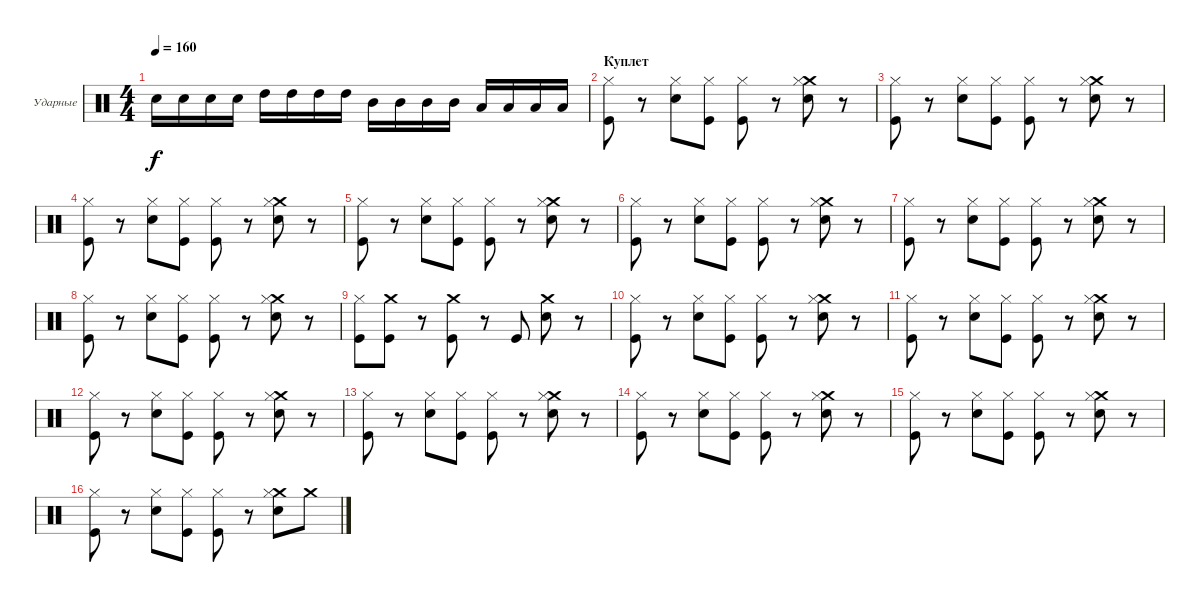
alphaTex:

\bracketExtendMode groupsimilarinstruments
\firstSystemTrackNameOrientation horizontal
\otherSystemsTrackNameOrientation horizontal
\track ("Александр Львов" "Ударные") {instrument percussion}
\staff {score}
\articulation defaults
\ts (4 4)
\tempo 160
\clef neutral
\ks c "Snare (hit) 2".16{dy f} "Snare (hit) 2".16 "Snare (hit) 2".16 "Snare (hit) 2".16 "High Tom (hit)".16 "High Tom (hit)".16 "High Tom (hit)".16 "High Tom (hit)".16 "Mid Tom (hit)".16 "Mid Tom (hit)".16 "Mid Tom (hit)".16 "Mid Tom (hit)".16 "Low Tom (hit)".16 "Low Tom (hit)".16 "Low Tom (hit)".16 "Low Tom (hit)".16
|
\section ("" "Куплет")
("Kick (hit)" "Hi-Hat (closed)").8 r.8 ("Snare (hit) 2" "Hi-Hat (closed)").8 ("Kick (hit)" "Hi-Hat (closed)").8 ("Kick (hit)" "Hi-Hat (closed)").8 r.8 ("Snare (hit) 2" "Crash medium (hit)" "Hi-Hat (closed)").8 r.8 |
("Kick (hit)" "Hi-Hat (closed)").8 r.8 ("Snare (hit) 2" "Hi-Hat (closed)").8 ("Kick (hit)" "Hi-Hat (closed)").8 ("Kick (hit)" "Hi-Hat (closed)").8 r.8 ("Snare (hit) 2" "Crash medium (hit)" "Hi-Hat (closed)").8 r.8 |
("Kick (hit)" "Hi-Hat (closed)").8 r.8 ("Snare (hit) 2" "Hi-Hat (closed)").8 ("Kick (hit)" "Hi-Hat (closed)").8 ("Kick (hit)" "Hi-Hat (closed)").8 r.8 ("Snare (hit) 2" "Crash medium (hit)" "Hi-Hat (closed)").8 r.8 |
("Kick (hit)" "Hi-Hat (closed)").8 r.8 ("Snare (hit) 2" "Hi-Hat (closed)").8 ("Kick (hit)" "Hi-Hat (closed)").8 ("Kick (hit)" "Hi-Hat (closed)").8 r.8 ("Snare (hit) 2" "Crash medium (hit)" "Hi-Hat (closed)").8 r.8 |
("Kick (hit)" "Hi-Hat (closed)").8 r.8 ("Snare (hit) 2" "Hi-Hat (closed)").8 ("Kick (hit)" "Hi-Hat (closed)").8 ("Kick (hit)" "Hi-Hat (closed)").8 r.8 ("Snare (hit) 2" "Crash medium (hit)" "Hi-Hat (closed)").8 r.8 |
("Kick (hit)" "Hi-Hat (closed)").8 r.8 ("Snare (hit) 2" "Hi-Hat (closed)").8 ("Kick (hit)" "Hi-Hat (closed)").8 ("Kick (hit)" "Hi-Hat (closed)").8 r.8 ("Snare (hit) 2" "Crash medium (hit)" "Hi-Hat (closed)").8 r.8 |
("Kick (hit)" "Hi-Hat (closed)").8 r.8 ("Snare (hit) 2" "Hi-Hat (closed)").8 ("Kick (hit)" "Hi-Hat (closed)").8 ("Kick (hit)" "Hi-Hat (closed)").8 r.8 ("Snare (hit) 2" "Crash medium (hit)" "Hi-Hat (closed)").8 r.8 |
("Kick (hit)" "Hi-Hat (closed)").8 ("Kick (hit)" "Crash medium (hit)").8 r.8 ("Kick (hit)" "Crash medium (hit)").8 r.8 "Kick (hit)".8 ("Snare (hit) 2" "Crash medium (hit)").8 r.8 |
("Kick (hit)" "Hi-Hat (closed)").8 r.8 ("Snare (hit) 2" "Hi-Hat (closed)").8 ("Kick (hit)" "Hi-Hat (closed)").8 ("Kick (hit)" "Hi-Hat (closed)").8 r.8 ("Snare (hit) 2" "Crash medium (hit)" "Hi-Hat (closed)").8 r.8 |
("Kick (hit)" "Hi-Hat (closed)").8 r.8 ("Snare (hit) 2" "Hi-Hat (closed)").8 ("Kick (hit)" "Hi-Hat (closed)").8 ("Kick (hit)" "Hi-Hat (closed)").8 r.8 ("Snare (hit) 2" "Crash medium (hit)" "Hi-Hat (closed)").8 r.8 |
("Kick (hit)" "Hi-Hat (closed)").8 r.8 ("Snare (hit) 2" "Hi-Hat (closed)").8 ("Kick (hit)" "Hi-Hat (closed)").8 ("Kick (hit)" "Hi-Hat (closed)").8 r.8 ("Snare (hit) 2" "Crash medium (hit)" "Hi-Hat (closed)").8 r.8 |
("Kick (hit)" "Hi-Hat (closed)").8 r.8 ("Snare (hit) 2" "Hi-Hat (closed)").8 ("Kick (hit)" "Hi-Hat (closed)").8 ("Kick (hit)" "Hi-Hat (closed)").8 r.8 ("Snare (hit) 2" "Crash medium (hit)" "Hi-Hat (closed)").8 r.8 |
("Kick (hit)" "Hi-Hat (closed)").8 r.8 ("Snare (hit) 2" "Hi-Hat (closed)").8 ("Kick (hit)" "Hi-Hat (closed)").8 ("Kick (hit)" "Hi-Hat (closed)").8 r.8 ("Snare (hit) 2" "Crash medium (hit)" "Hi-Hat (closed)").8 r.8 |
("Kick (hit)" "Hi-Hat (closed)").8 r.8 ("Snare (hit) 2" "Hi-Hat (closed)").8 ("Kick (hit)" "Hi-Hat (closed)").8 ("Kick (hit)" "Hi-Hat (closed)").8 r.8 ("Snare (hit) 2" "Crash medium (hit)" "Hi-Hat (closed)").8 r.8 |
("Kick (hit)" "Hi-Hat (closed)").8 r.8 ("Snare (hit) 2" "Hi-Hat (closed)").8 ("Kick (hit)" "Hi-Hat (closed)").8 ("Kick (hit)" "Hi-Hat (closed)").8 r.8 ("Snare (hit) 2" "Crash medium (hit)" "Hi-Hat (closed)").8 "Crash medium (hit)".8
